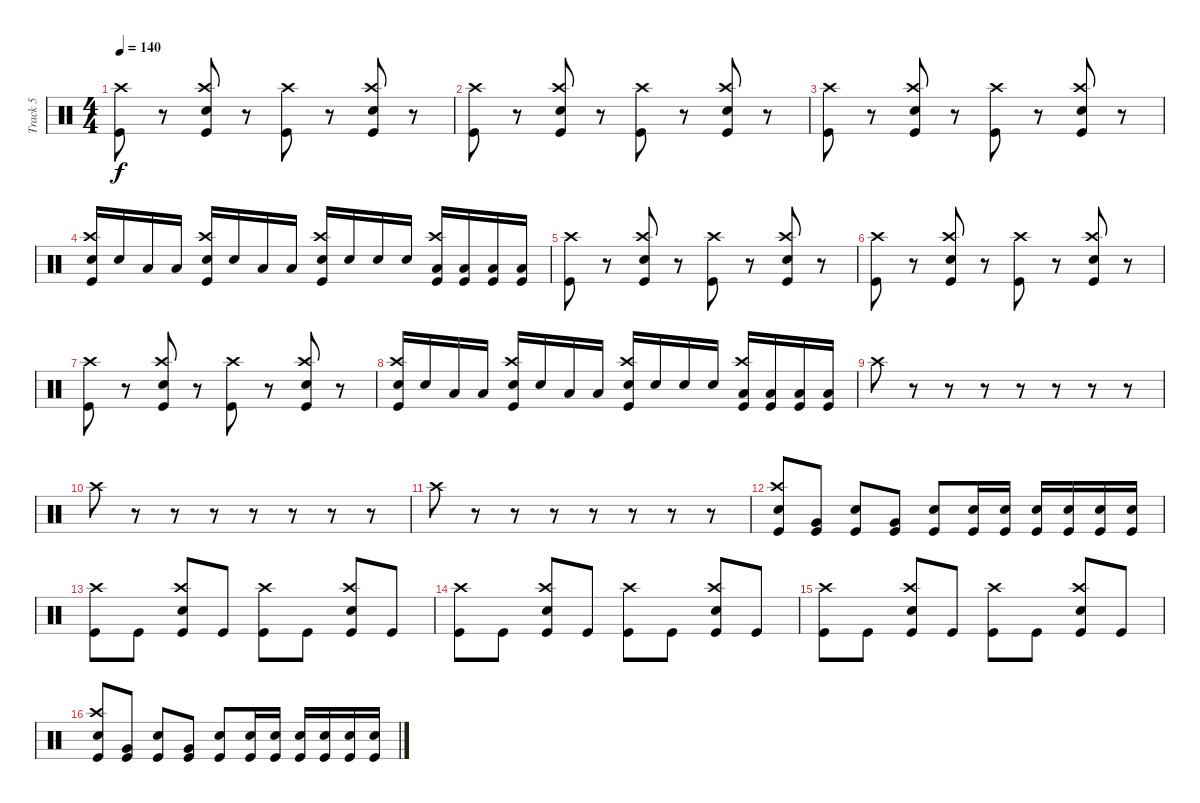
\track ("Track 5" "Track 5") {instrument percussion}
\staff {score}
\articulation defaults
\ts (4 4)
\tempo 140
\clef neutral
\ks c
("Kick (hit)" "Crash high (hit)").8{dy f} r.8 ("Electric Snare (hit)" "Kick (hit)" "Crash high (hit)").8 r.8 ("Kick (hit)" "Crash high (hit)").8 r.8 ("Electric Snare (hit)" "Kick (hit)" "Crash high (hit)").8 r.8 |
("Kick (hit)" "Crash high (hit)").8 r.8 ("Electric Snare (hit)" "Kick (hit)" "Crash high (hit)").8 r.8 ("Kick (hit)" "Crash high (hit)").8 r.8 ("Electric Snare (hit)" "Kick (hit)" "Crash high (hit)").8 r.8 |
("Kick (hit)" "Crash high (hit)").8 r.8 ("Electric Snare (hit)" "Kick (hit)" "Crash high (hit)").8 r.8 ("Kick (hit)" "Crash high (hit)").8 r.8 ("Electric Snare (hit)" "Kick (hit)" "Crash high (hit)").8 r.8 |
("Kick (hit)" "Crash high (hit)" "Electric Snare (hit)").16 "Electric Snare (hit)".16 "Low Tom (hit)".16 "Low Tom (hit)".16 ("Electric Snare (hit)" "Kick (hit)" "Crash high (hit)").16 "Electric Snare (hit)".16 "Low Tom (hit)".16 "Low Tom (hit)".16 ("Kick (hit)" "Crash high (hit)" "Electric Snare (hit)").16 "Electric Snare (hit)".16 "Electric Snare (hit)".16 "Electric Snare (hit)".16 ("Low Tom (hit)" "Kick (hit)" "Crash high (hit)").16 ("Low Tom (hit)" "Kick (hit)").16 ("Low Tom (hit)" "Kick (hit)").16 ("Low Tom (hit)" "Kick (hit)").16 |
("Kick (hit)" "Crash high (hit)").8 r.8 ("Electric Snare (hit)" "Kick (hit)" "Crash high (hit)").8 r.8 ("Kick (hit)" "Crash high (hit)").8 r.8 ("Electric Snare (hit)" "Kick (hit)" "Crash high (hit)").8 r.8 |
("Kick (hit)" "Crash high (hit)").8 r.8 ("Electric Snare (hit)" "Kick (hit)" "Crash high (hit)").8 r.8 ("Kick (hit)" "Crash high (hit)").8 r.8 ("Electric Snare (hit)" "Kick (hit)" "Crash high (hit)").8 r.8 |
("Kick (hit)" "Crash high (hit)").8 r.8 ("Electric Snare (hit)" "Kick (hit)" "Crash high (hit)").8 r.8 ("Kick (hit)" "Crash high (hit)").8 r.8 ("Electric Snare (hit)" "Kick (hit)" "Crash high (hit)").8 r.8 |
("Kick (hit)" "Crash high (hit)" "Electric Snare (hit)").16 "Electric Snare (hit)".16 "Low Tom (hit)".16 "Low Tom (hit)".16 ("Electric Snare (hit)" "Kick (hit)" "Crash high (hit)").16 "Electric Snare (hit)".16 "Low Tom (hit)".16 "Low Tom (hit)".16 ("Kick (hit)" "Crash high (hit)" "Electric Snare (hit)").16 "Electric Snare (hit)".16 "Electric Snare (hit)".16 "Electric Snare (hit)".16 ("Low Tom (hit)" "Kick (hit)" "Crash high (hit)").16 ("Low Tom (hit)" "Kick (hit)").16 ("Low Tom (hit)" "Kick (hit)").16 ("Low Tom (hit)" "Kick (hit)").16 |
"Crash high (hit)".8 r.8 r.8 r.8 r.8 r.8 r.8 r.8 |
"Crash high (hit)".8 r.8 r.8 r.8 r.8 r.8 r.8 r.8 |
"Crash high (hit)".8 r.8 r.8 r.8 r.8 r.8 r.8 r.8 |
("Electric Snare (hit)" "Crash high (hit)" "Kick (hit)").8 ("Very Low Tom (hit)" "Kick (hit)").8 ("Electric Snare (hit)" "Kick (hit)").8 ("Very Low Tom (hit)" "Kick (hit)").8 ("Electric Snare (hit)" "Kick (hit)").8 ("Electric Snare (hit)" "Kick (hit)").16 ("Electric Snare (hit)" "Kick (hit)").16 ("Electric Snare (hit)" "Kick (hit)").16 ("Electric Snare (hit)" "Kick (hit)").16 ("Electric Snare (hit)" "Kick (hit)").16 ("Electric Snare (hit)" "Kick (hit)").16 |
("Kick (hit)" "Crash high (hit)").8 "Kick (hit)".8 ("Electric Snare (hit)" "Kick (hit)" "Crash high (hit)").8 "Kick (hit)".8 ("Kick (hit)" "Crash high (hit)").8 "Kick (hit)".8 ("Electric Snare (hit)" "Kick (hit)" "Crash high (hit)").8 "Kick (hit)".8 |
("Kick (hit)" "Crash high (hit)").8 "Kick (hit)".8 ("Electric Snare (hit)" "Kick (hit)" "Crash high (hit)").8 "Kick (hit)".8 ("Kick (hit)" "Crash high (hit)").8 "Kick (hit)".8 ("Electric Snare (hit)" "Kick (hit)" "Crash high (hit)").8 "Kick (hit)".8 |
("Kick (hit)" "Crash high (hit)").8 "Kick (hit)".8 ("Electric Snare (hit)" "Kick (hit)" "Crash high (hit)").8 "Kick (hit)".8 ("Kick (hit)" "Crash high (hit)").8 "Kick (hit)".8 ("Electric Snare (hit)" "Kick (hit)" "Crash high (hit)").8 "Kick (hit)".8 |
("Electric Snare (hit)" "Crash high (hit)" "Kick (hit)").8 ("Very Low Tom (hit)" "Kick (hit)").8 ("Electric Snare (hit)" "Kick (hit)").8 ("Very Low Tom (hit)" "Kick (hit)").8 ("Electric Snare (hit)" "Kick (hit)").8 ("Electric Snare (hit)" "Kick (hit)").16 ("Electric Snare (hit)" "Kick (hit)").16 ("Electric Snare (hit)" "Kick (hit)").16 ("Electric Snare (hit)" "Kick (hit)").16 ("Electric Snare (hit)" "Kick (hit)").16 ("Electric Snare (hit)" "Kick (hit)").16
